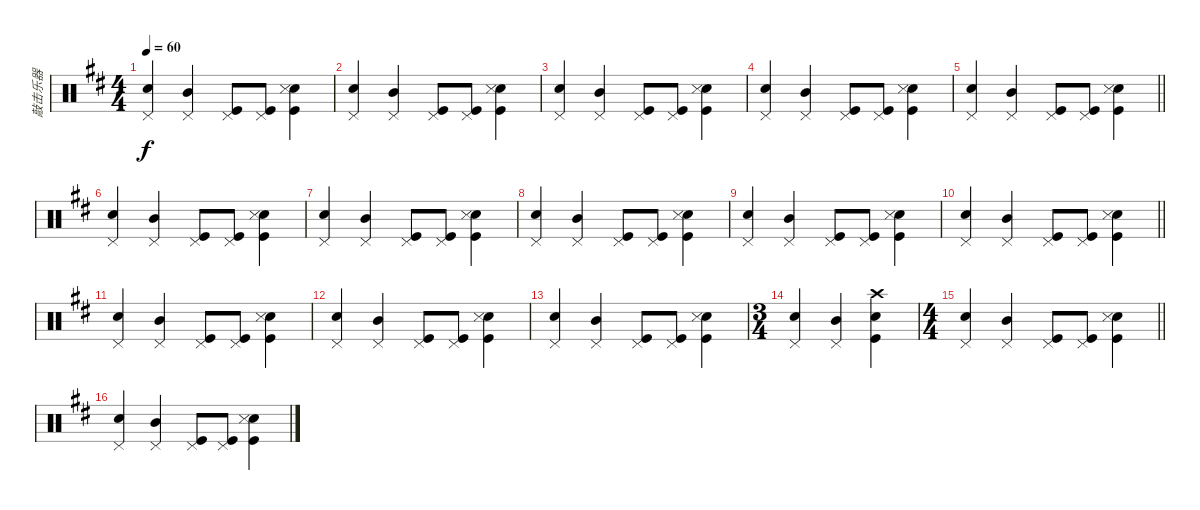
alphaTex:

\track ("敲击乐器" "敲击乐器") {instrument percussion}
\staff {score}
\articulation defaults
\ts (4 4)
\tempo 60
\clef neutral
\ks d
("Snare (hit) 2" "Pedal Hi-Hat (hit)").4{dy f} ("Pedal Hi-Hat (hit)" "Mid Tom (hit)").4 ("Kick (hit)" "Pedal Hi-Hat (hit)").8 ("Pedal Hi-Hat (hit)" "Kick (hit)").8 ("Snare (hit) 2" "Snare (side stick) 3" "Kick (hit)").4 |
("Snare (hit) 2" "Pedal Hi-Hat (hit)").4 ("Pedal Hi-Hat (hit)" "Mid Tom (hit)").4 ("Kick (hit)" "Pedal Hi-Hat (hit)").8 ("Pedal Hi-Hat (hit)" "Kick (hit)").8 ("Snare (hit) 2" "Snare (side stick) 3" "Kick (hit)").4 |
("Snare (hit) 2" "Pedal Hi-Hat (hit)").4 ("Pedal Hi-Hat (hit)" "Mid Tom (hit)").4 ("Kick (hit)" "Pedal Hi-Hat (hit)").8 ("Pedal Hi-Hat (hit)" "Kick (hit)").8 ("Snare (hit) 2" "Snare (side stick) 3" "Kick (hit)").4 |
("Snare (hit) 2" "Pedal Hi-Hat (hit)").4 ("Pedal Hi-Hat (hit)" "Mid Tom (hit)").4 ("Kick (hit)" "Pedal Hi-Hat (hit)").8 ("Pedal Hi-Hat (hit)" "Kick (hit)").8 ("Snare (hit) 2" "Snare (side stick) 3" "Kick (hit)").4 |
\barLineRight lightlight
("Snare (hit) 2" "Pedal Hi-Hat (hit)").4 ("Pedal Hi-Hat (hit)" "Mid Tom (hit)").4 ("Kick (hit)" "Pedal Hi-Hat (hit)").8 ("Pedal Hi-Hat (hit)" "Kick (hit)").8 ("Snare (hit) 2" "Snare (side stick) 3" "Kick (hit)").4 |
("Snare (hit) 2" "Pedal Hi-Hat (hit)").4 ("Pedal Hi-Hat (hit)" "Mid Tom (hit)").4 ("Kick (hit)" "Pedal Hi-Hat (hit)").8 ("Pedal Hi-Hat (hit)" "Kick (hit)").8 ("Snare (hit) 2" "Snare (side stick) 3" "Kick (hit)").4 |
("Snare (hit) 2" "Pedal Hi-Hat (hit)").4 ("Pedal Hi-Hat (hit)" "Mid Tom (hit)").4 ("Kick (hit)" "Pedal Hi-Hat (hit)").8 ("Pedal Hi-Hat (hit)" "Kick (hit)").8 ("Snare (hit) 2" "Snare (side stick) 3" "Kick (hit)").4 |
("Snare (hit) 2" "Pedal Hi-Hat (hit)").4 ("Pedal Hi-Hat (hit)" "Mid Tom (hit)").4 ("Kick (hit)" "Pedal Hi-Hat (hit)").8 ("Pedal Hi-Hat (hit)" "Kick (hit)").8 ("Snare (hit) 2" "Snare (side stick) 3" "Kick (hit)").4 |
("Snare (hit) 2" "Pedal Hi-Hat (hit)").4 ("Pedal Hi-Hat (hit)" "Mid Tom (hit)").4 ("Kick (hit)" "Pedal Hi-Hat (hit)").8 ("Pedal Hi-Hat (hit)" "Kick (hit)").8 ("Snare (hit) 2" "Snare (side stick) 3" "Kick (hit)").4 |
\barLineRight lightlight
("Snare (hit) 2" "Pedal Hi-Hat (hit)").4 ("Pedal Hi-Hat (hit)" "Mid Tom (hit)").4 ("Kick (hit)" "Pedal Hi-Hat (hit)").8 ("Pedal Hi-Hat (hit)" "Kick (hit)").8 ("Snare (hit) 2" "Snare (side stick) 3" "Kick (hit)").4 |
("Snare (hit) 2" "Pedal Hi-Hat (hit)").4 ("Pedal Hi-Hat (hit)" "Mid Tom (hit)").4 ("Kick (hit)" "Pedal Hi-Hat (hit)").8 ("Pedal Hi-Hat (hit)" "Kick (hit)").8 ("Snare (hit) 2" "Snare (side stick) 3" "Kick (hit)").4 |
("Snare (hit) 2" "Pedal Hi-Hat (hit)").4 ("Pedal Hi-Hat (hit)" "Mid Tom (hit)").4 ("Kick (hit)" "Pedal Hi-Hat (hit)").8 ("Pedal Hi-Hat (hit)" "Kick (hit)").8 ("Snare (hit) 2" "Snare (side stick) 3" "Kick (hit)").4 |
("Snare (hit) 2" "Pedal Hi-Hat (hit)").4 ("Pedal Hi-Hat (hit)" "Mid Tom (hit)").4 ("Kick (hit)" "Pedal Hi-Hat (hit)").8 ("Pedal Hi-Hat (hit)" "Kick (hit)").8 ("Snare (hit) 2" "Snare (side stick) 3" "Kick (hit)").4 |
\ts (3 4)
("Snare (hit) 2" "Pedal Hi-Hat (hit)").4 ("Pedal Hi-Hat (hit)" "Mid Tom (hit)").4 ("Kick (hit)" "Snare (hit) 2" "Crash high (hit)").4 |
\ts (4 4)
\barLineRight lightlight
("Snare (hit) 2" "Pedal Hi-Hat (hit)").4 ("Pedal Hi-Hat (hit)" "Mid Tom (hit)").4 ("Kick (hit)" "Pedal Hi-Hat (hit)").8 ("Pedal Hi-Hat (hit)" "Kick (hit)").8 ("Snare (hit) 2" "Snare (side stick) 3" "Kick (hit)").4 |
("Snare (hit) 2" "Pedal Hi-Hat (hit)").4 ("Pedal Hi-Hat (hit)" "Mid Tom (hit)").4 ("Kick (hit)" "Pedal Hi-Hat (hit)").8 ("Pedal Hi-Hat (hit)" "Kick (hit)").8 ("Snare (hit) 2" "Snare (side stick) 3" "Kick (hit)").4
